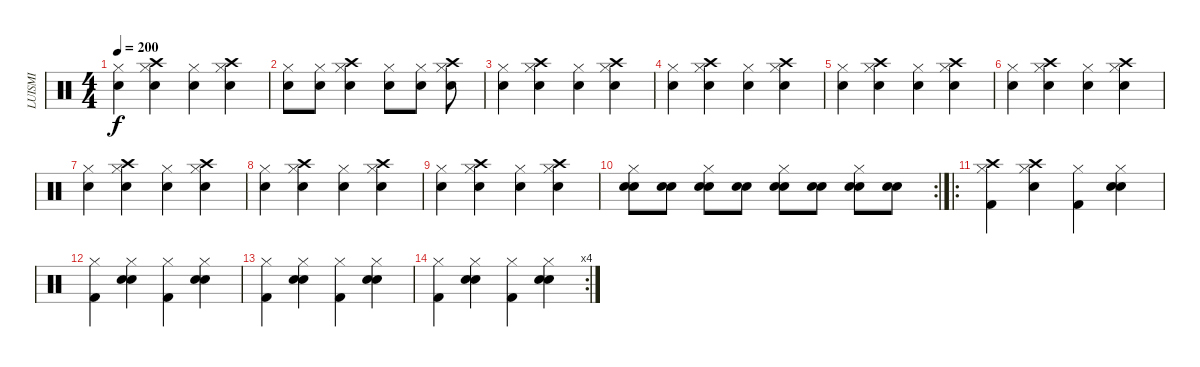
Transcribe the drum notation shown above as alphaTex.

\track ("LUISMI" "LUISMI") {instrument percussion}
\staff {score}
\articulation defaults
\ts (4 4)
\tempo 200
\clef neutral
\ks c
("Hi-Hat (closed)" "Snare (hit) 2").4{dy f} ("Hi-Hat (closed)" "Snare (hit) 2" "Crash high (hit)").4 ("Hi-Hat (closed)" "Snare (hit) 2").4 ("Hi-Hat (closed)" "Snare (hit) 2" "Crash high (hit)").4 |
("Hi-Hat (closed)" "Snare (hit) 2").8 ("Hi-Hat (closed)" "Snare (hit) 2").8 ("Hi-Hat (closed)" "Snare (hit) 2" "Crash high (hit)").4 ("Hi-Hat (closed)" "Snare (hit) 2").8 ("Hi-Hat (closed)" "Snare (hit) 2").8 ("Hi-Hat (closed)" "Snare (hit) 2" "Crash high (hit)").8 |
("Hi-Hat (closed)" "Snare (hit) 2").4 ("Hi-Hat (closed)" "Snare (hit) 2" "Crash high (hit)").4 ("Hi-Hat (closed)" "Snare (hit) 2").4 ("Hi-Hat (closed)" "Snare (hit) 2" "Crash high (hit)").4 |
("Hi-Hat (closed)" "Snare (hit) 2").4 ("Hi-Hat (closed)" "Snare (hit) 2" "Crash high (hit)").4 ("Hi-Hat (closed)" "Snare (hit) 2").4 ("Hi-Hat (closed)" "Snare (hit) 2" "Crash high (hit)").4 |
("Hi-Hat (closed)" "Snare (hit) 2").4 ("Hi-Hat (closed)" "Snare (hit) 2" "Crash high (hit)").4 ("Hi-Hat (closed)" "Snare (hit) 2").4 ("Hi-Hat (closed)" "Snare (hit) 2" "Crash high (hit)").4 |
("Hi-Hat (closed)" "Snare (hit) 2").4 ("Hi-Hat (closed)" "Snare (hit) 2" "Crash high (hit)").4 ("Hi-Hat (closed)" "Snare (hit) 2").4 ("Hi-Hat (closed)" "Snare (hit) 2" "Crash high (hit)").4 |
("Hi-Hat (closed)" "Snare (hit) 2").4 ("Hi-Hat (closed)" "Snare (hit) 2" "Crash high (hit)").4 ("Hi-Hat (closed)" "Snare (hit) 2").4 ("Hi-Hat (closed)" "Snare (hit) 2" "Crash high (hit)").4 |
("Hi-Hat (closed)" "Snare (hit) 2").4 ("Hi-Hat (closed)" "Snare (hit) 2" "Crash high (hit)").4 ("Hi-Hat (closed)" "Snare (hit) 2").4 ("Hi-Hat (closed)" "Snare (hit) 2" "Crash high (hit)").4 |
("Hi-Hat (closed)" "Snare (hit) 2").4 ("Hi-Hat (closed)" "Snare (hit) 2" "Crash high (hit)").4 ("Hi-Hat (closed)" "Snare (hit) 2").4 ("Hi-Hat (closed)" "Snare (hit) 2" "Crash high (hit)").4 |
\rc 2
("Hi-Hat (closed)" "Snare (hit) 2" "Electric Snare (hit)").8 ("Snare (hit) 2" "Electric Snare (hit)").8 ("Hi-Hat (closed)" "Snare (hit) 2" "Electric Snare (hit)").8 ("Snare (hit) 2" "Electric Snare (hit)").8 ("Hi-Hat (closed)" "Snare (hit) 2" "Electric Snare (hit)").8 ("Snare (hit) 2" "Electric Snare (hit)").8 ("Hi-Hat (closed)" "Snare (hit) 2" "Electric Snare (hit)").8 ("Snare (hit) 2" "Electric Snare (hit)").8 |
\ro
("Hi-Hat (closed)" "Kick (hit) 2" "Crash high (hit)").4 ("Hi-Hat (closed)" "Snare (hit) 2" "Crash high (hit)").4 ("Hi-Hat (closed)" "Kick (hit) 2").4 ("Hi-Hat (closed)" "Snare (hit) 2" "Electric Snare (hit)").4 |
("Hi-Hat (closed)" "Kick (hit) 2").4 ("Hi-Hat (closed)" "Snare (hit) 2" "Electric Snare (hit)").4 ("Hi-Hat (closed)" "Kick (hit) 2").4 ("Hi-Hat (closed)" "Snare (hit) 2" "Electric Snare (hit)").4 |
("Hi-Hat (closed)" "Kick (hit) 2").4 ("Hi-Hat (closed)" "Snare (hit) 2" "Electric Snare (hit)").4 ("Hi-Hat (closed)" "Kick (hit) 2").4 ("Hi-Hat (closed)" "Snare (hit) 2" "Electric Snare (hit)").4 |
\rc 4
("Hi-Hat (closed)" "Kick (hit) 2").4 ("Hi-Hat (closed)" "Snare (hit) 2" "Electric Snare (hit)").4 ("Hi-Hat (closed)" "Kick (hit) 2").4 ("Hi-Hat (closed)" "Snare (hit) 2" "Electric Snare (hit)").4
